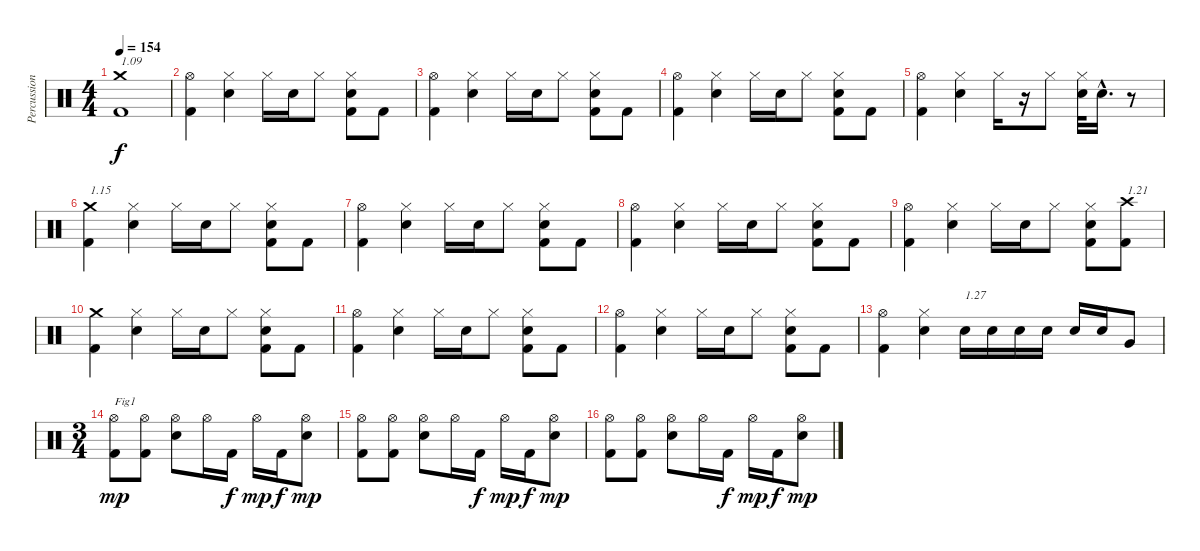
\track ("Percussions" "Percussion") {instrument percussion}
\staff {score}
\articulation defaults
\ts (4 4)
\tempo 154
\clef neutral
\ks c
("Kick (hit) 2" "Crash medium (hit)").1{txt "1.09" dy f} |
("Kick (hit) 2" "Hi-Hat (open)").4 ("Electric Snare (hit)" "Hi-Hat (closed)").4 "Hi-Hat (closed)".16 "Electric Snare (hit)".16 "Hi-Hat (closed)".8 ("Kick (hit) 2" "Electric Snare (hit)" "Hi-Hat (closed)").8 "Kick (hit) 2".8 |
("Kick (hit) 2" "Hi-Hat (open)").4 ("Electric Snare (hit)" "Hi-Hat (closed)").4 "Hi-Hat (closed)".16 "Electric Snare (hit)".16 "Hi-Hat (closed)".8 ("Kick (hit) 2" "Electric Snare (hit)" "Hi-Hat (closed)").8 "Kick (hit) 2".8 |
("Kick (hit) 2" "Hi-Hat (open)").4 ("Electric Snare (hit)" "Hi-Hat (closed)").4 "Hi-Hat (closed)".16 "Electric Snare (hit)".16 "Hi-Hat (closed)".8 ("Kick (hit) 2" "Electric Snare (hit)" "Hi-Hat (closed)").8 "Kick (hit) 2".8 |
("Kick (hit) 2" "Hi-Hat (open)").4 ("Electric Snare (hit)" "Hi-Hat (closed)").4 "Hi-Hat (closed)".16 r.16 "Hi-Hat (closed)".8 ("Electric Snare (hit)" "Hi-Hat (closed)").32 "Electric Snare (hit)"{hac}.16{d} r.8 |
("Kick (hit) 2" "Crash medium (hit)").4{txt "1.15"} ("Electric Snare (hit)" "Hi-Hat (closed)").4 "Hi-Hat (closed)".16 "Electric Snare (hit)".16 "Hi-Hat (closed)".8 ("Kick (hit) 2" "Electric Snare (hit)" "Hi-Hat (closed)").8 "Kick (hit) 2".8 |
("Kick (hit) 2" "Hi-Hat (open)").4 ("Electric Snare (hit)" "Hi-Hat (closed)").4 "Hi-Hat (closed)".16 "Electric Snare (hit)".16 "Hi-Hat (closed)".8 ("Kick (hit) 2" "Electric Snare (hit)" "Hi-Hat (closed)").8 "Kick (hit) 2".8 |
("Kick (hit) 2" "Hi-Hat (open)").4 ("Electric Snare (hit)" "Hi-Hat (closed)").4 "Hi-Hat (closed)".16 "Electric Snare (hit)".16 "Hi-Hat (closed)".8 ("Kick (hit) 2" "Electric Snare (hit)" "Hi-Hat (closed)").8 "Kick (hit) 2".8 |
("Kick (hit) 2" "Hi-Hat (open)").4 ("Electric Snare (hit)" "Hi-Hat (closed)").4 "Hi-Hat (closed)".16 "Electric Snare (hit)".16 "Hi-Hat (closed)".8 ("Kick (hit) 2" "Electric Snare (hit)" "Hi-Hat (closed)").8 ("Kick (hit) 2" "Crash high (hit)").8{txt "1.21"} |
("Kick (hit) 2" "Crash medium (hit)").4 ("Electric Snare (hit)" "Hi-Hat (closed)").4 "Hi-Hat (closed)".16 "Electric Snare (hit)".16 "Hi-Hat (closed)".8 ("Kick (hit) 2" "Electric Snare (hit)" "Hi-Hat (closed)").8 "Kick (hit) 2".8 |
("Kick (hit) 2" "Hi-Hat (open)").4 ("Electric Snare (hit)" "Hi-Hat (closed)").4 "Hi-Hat (closed)".16 "Electric Snare (hit)".16 "Hi-Hat (closed)".8 ("Kick (hit) 2" "Electric Snare (hit)" "Hi-Hat (closed)").8 "Kick (hit) 2".8 |
("Kick (hit) 2" "Hi-Hat (open)").4 ("Electric Snare (hit)" "Hi-Hat (closed)").4 "Hi-Hat (closed)".16 "Electric Snare (hit)".16 "Hi-Hat (closed)".8 ("Kick (hit) 2" "Electric Snare (hit)" "Hi-Hat (closed)").8 "Kick (hit) 2".8 |
("Kick (hit) 2" "Hi-Hat (open)").4 ("Electric Snare (hit)" "Hi-Hat (closed)").4 "Electric Snare (hit)".16{txt "1.27"} "Electric Snare (hit)".16 "Electric Snare (hit)".16 "Electric Snare (hit)".16 "Electric Snare (hit)".16 "Electric Snare (hit)".16 "Very Low Tom (hit)".8 |
\ts (3 4)
("Kick (hit) 2" "Hi-Hat (open)").8{txt "Fig1" dy mp} ("Kick (hit) 2" "Hi-Hat (open)").8 ("Electric Snare (hit)" "Hi-Hat (open)").8 "Hi-Hat (open)".16 "Kick (hit) 2".16{dy f} "Hi-Hat (open)".16{dy mp} "Kick (hit) 2".16{dy f} ("Electric Snare (hit)" "Hi-Hat (open)").8{dy mp} |
("Kick (hit) 2" "Hi-Hat (open)").8 ("Kick (hit) 2" "Hi-Hat (open)").8 ("Electric Snare (hit)" "Hi-Hat (open)").8 "Hi-Hat (open)".16 "Kick (hit) 2".16{dy f} "Hi-Hat (open)".16{dy mp} "Kick (hit) 2".16{dy f} ("Electric Snare (hit)" "Hi-Hat (open)").8{dy mp} |
("Kick (hit) 2" "Hi-Hat (open)").8 ("Kick (hit) 2" "Hi-Hat (open)").8 ("Electric Snare (hit)" "Hi-Hat (open)").8 "Hi-Hat (open)".16 "Kick (hit) 2".16{dy f} "Hi-Hat (open)".16{dy mp} "Kick (hit) 2".16{dy f} ("Electric Snare (hit)" "Hi-Hat (open)").8{dy mp}
